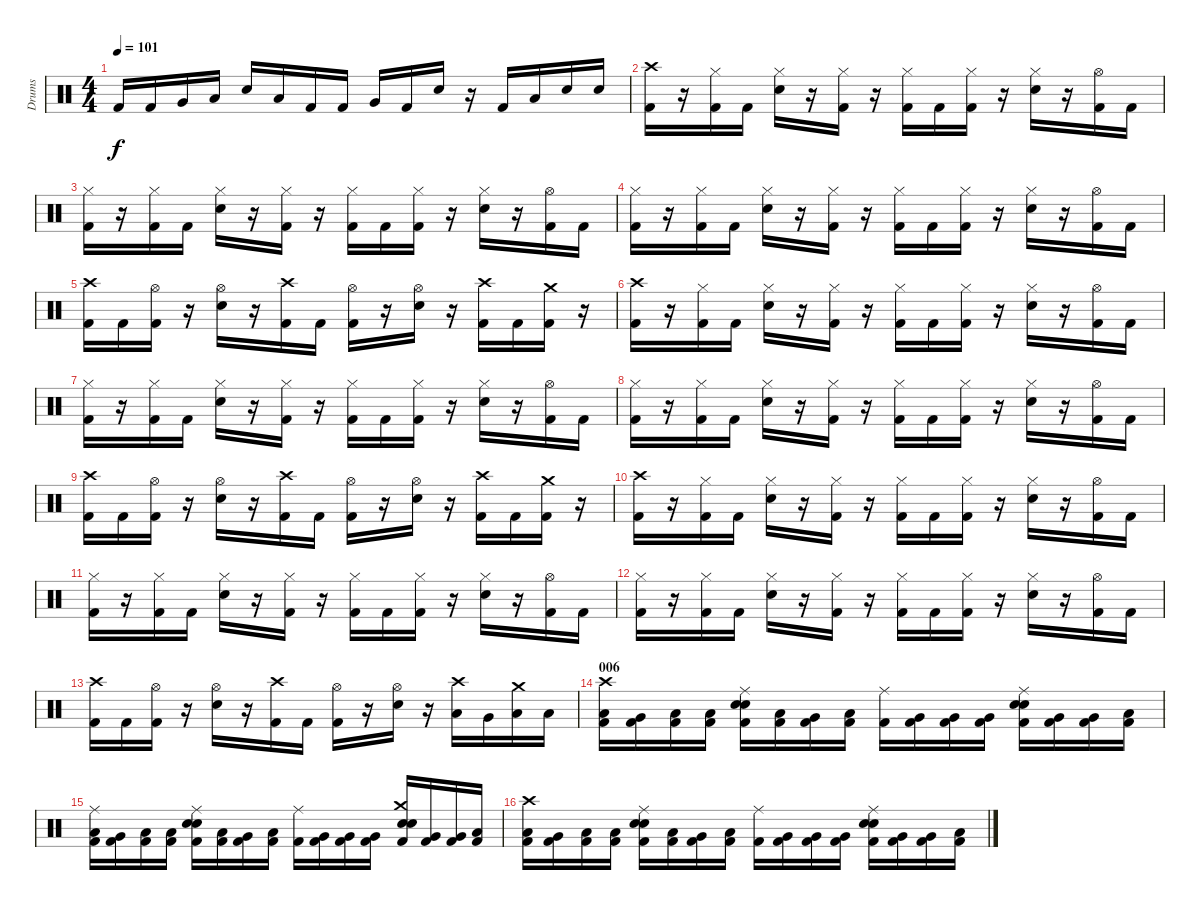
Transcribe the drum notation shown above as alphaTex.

\track ("Drums" "Drums") {instrument percussion}
\staff {score}
\articulation defaults
\ts (4 4)
\tempo 101
\clef neutral
\ks c "Kick (hit) 2".16{dy f} "Kick (hit) 2".16 "Very Low Tom (hit)".16 "Low Floor Tom (hit)".16 "Electric Snare (hit)".16 "Low Floor Tom (hit)".16 "Kick (hit) 2".16 "Kick (hit) 2".16 "Very Low Tom (hit)".16 "Kick (hit) 2".16 "Electric Snare (hit)".16
r.16 "Kick (hit) 2".16 "Low Floor Tom (hit)".16 "Electric Snare (hit)".16 "Electric Snare (hit)".16 |
("Kick (hit) 2" "Crash high (hit)").16 r.16 ("Kick (hit) 2" "Hi-Hat (closed)").16 "Kick (hit) 2".16 ("Electric Snare (hit)" "Hi-Hat (closed)").16 r.16 ("Kick (hit) 2" "Hi-Hat (closed)").16 r.16 ("Kick (hit) 2" "Hi-Hat (closed)").16 "Kick (hit) 2".16 ("Kick (hit) 2" "Hi-Hat (closed)").16 r.16 ("Electric Snare (hit)" "Hi-Hat (closed)").16 r.16 ("Kick (hit) 2" "Hi-Hat (open)").16 "Kick (hit) 2".16 |
("Kick (hit) 2" "Hi-Hat (closed)").16 r.16 ("Kick (hit) 2" "Hi-Hat (closed)").16 "Kick (hit) 2".16 ("Electric Snare (hit)" "Hi-Hat (closed)").16 r.16 ("Kick (hit) 2" "Hi-Hat (closed)").16 r.16 ("Kick (hit) 2" "Hi-Hat (closed)").16 "Kick (hit) 2".16 ("Kick (hit) 2" "Hi-Hat (closed)").16 r.16 ("Electric Snare (hit)" "Hi-Hat (closed)").16 r.16 ("Kick (hit) 2" "Hi-Hat (open)").16 "Kick (hit) 2".16 |
("Kick (hit) 2" "Hi-Hat (closed)").16 r.16 ("Kick (hit) 2" "Hi-Hat (closed)").16 "Kick (hit) 2".16 ("Electric Snare (hit)" "Hi-Hat (closed)").16 r.16 ("Kick (hit) 2" "Hi-Hat (closed)").16 r.16 ("Kick (hit) 2" "Hi-Hat (closed)").16 "Kick (hit) 2".16 ("Kick (hit) 2" "Hi-Hat (closed)").16 r.16 ("Electric Snare (hit)" "Hi-Hat (closed)").16 r.16 ("Kick (hit) 2" "Hi-Hat (open)").16 "Kick (hit) 2".16 |
("Kick (hit) 2" "Crash high (hit)").16 "Kick (hit) 2".16 ("Kick (hit) 2" "Hi-Hat (open)").16 r.16 ("Electric Snare (hit)" "Hi-Hat (open)").16 r.16 ("Kick (hit) 2" "Crash high (hit)").16 "Kick (hit) 2".16 ("Kick (hit) 2" "Hi-Hat (open)").16 r.16 ("Electric Snare (hit)" "Hi-Hat (open)").16 r.16 ("Kick (hit) 2" "Crash high (hit)").16 "Kick (hit) 2".16 ("Kick (hit) 2" "Crash medium (hit)").16 r.16 |
("Kick (hit) 2" "Crash high (hit)").16 r.16 ("Kick (hit) 2" "Hi-Hat (closed)").16 "Kick (hit) 2".16 ("Electric Snare (hit)" "Hi-Hat (closed)").16 r.16 ("Kick (hit) 2" "Hi-Hat (closed)").16 r.16 ("Kick (hit) 2" "Hi-Hat (closed)").16 "Kick (hit) 2".16 ("Kick (hit) 2" "Hi-Hat (closed)").16 r.16 ("Electric Snare (hit)" "Hi-Hat (closed)").16 r.16 ("Kick (hit) 2" "Hi-Hat (open)").16 "Kick (hit) 2".16 |
("Kick (hit) 2" "Hi-Hat (closed)").16 r.16 ("Kick (hit) 2" "Hi-Hat (closed)").16 "Kick (hit) 2".16 ("Electric Snare (hit)" "Hi-Hat (closed)").16 r.16 ("Kick (hit) 2" "Hi-Hat (closed)").16 r.16 ("Kick (hit) 2" "Hi-Hat (closed)").16 "Kick (hit) 2".16 ("Kick (hit) 2" "Hi-Hat (closed)").16 r.16 ("Electric Snare (hit)" "Hi-Hat (closed)").16 r.16 ("Kick (hit) 2" "Hi-Hat (open)").16 "Kick (hit) 2".16 |
("Kick (hit) 2" "Hi-Hat (closed)").16 r.16 ("Kick (hit) 2" "Hi-Hat (closed)").16 "Kick (hit) 2".16 ("Electric Snare (hit)" "Hi-Hat (closed)").16 r.16 ("Kick (hit) 2" "Hi-Hat (closed)").16 r.16 ("Kick (hit) 2" "Hi-Hat (closed)").16 "Kick (hit) 2".16 ("Kick (hit) 2" "Hi-Hat (closed)").16 r.16 ("Electric Snare (hit)" "Hi-Hat (closed)").16 r.16 ("Kick (hit) 2" "Hi-Hat (open)").16 "Kick (hit) 2".16 |
("Kick (hit) 2" "Crash high (hit)").16 "Kick (hit) 2".16 ("Kick (hit) 2" "Hi-Hat (open)").16 r.16 ("Electric Snare (hit)" "Hi-Hat (open)").16 r.16 ("Kick (hit) 2" "Crash high (hit)").16 "Kick (hit) 2".16 ("Kick (hit) 2" "Hi-Hat (open)").16 r.16 ("Electric Snare (hit)" "Hi-Hat (open)").16 r.16 ("Kick (hit) 2" "Crash high (hit)").16 "Kick (hit) 2".16 ("Kick (hit) 2" "Crash medium (hit)").16 r.16 |
("Kick (hit) 2" "Crash high (hit)").16 r.16 ("Kick (hit) 2" "Hi-Hat (closed)").16 "Kick (hit) 2".16 ("Electric Snare (hit)" "Hi-Hat (closed)").16 r.16 ("Kick (hit) 2" "Hi-Hat (closed)").16 r.16 ("Kick (hit) 2" "Hi-Hat (closed)").16 "Kick (hit) 2".16 ("Kick (hit) 2" "Hi-Hat (closed)").16 r.16 ("Electric Snare (hit)" "Hi-Hat (closed)").16 r.16 ("Kick (hit) 2" "Hi-Hat (open)").16 "Kick (hit) 2".16 |
("Kick (hit) 2" "Hi-Hat (closed)").16 r.16 ("Kick (hit) 2" "Hi-Hat (closed)").16 "Kick (hit) 2".16 ("Electric Snare (hit)" "Hi-Hat (closed)").16 r.16 ("Kick (hit) 2" "Hi-Hat (closed)").16 r.16 ("Kick (hit) 2" "Hi-Hat (closed)").16 "Kick (hit) 2".16 ("Kick (hit) 2" "Hi-Hat (closed)").16 r.16 ("Electric Snare (hit)" "Hi-Hat (closed)").16 r.16 ("Kick (hit) 2" "Hi-Hat (open)").16 "Kick (hit) 2".16 |
("Kick (hit) 2" "Hi-Hat (closed)").16 r.16 ("Kick (hit) 2" "Hi-Hat (closed)").16 "Kick (hit) 2".16 ("Electric Snare (hit)" "Hi-Hat (closed)").16 r.16 ("Kick (hit) 2" "Hi-Hat (closed)").16 r.16 ("Kick (hit) 2" "Hi-Hat (closed)").16 "Kick (hit) 2".16 ("Kick (hit) 2" "Hi-Hat (closed)").16 r.16 ("Electric Snare (hit)" "Hi-Hat (closed)").16 r.16 ("Kick (hit) 2" "Hi-Hat (open)").16 "Kick (hit) 2".16 |
("Kick (hit) 2" "Crash high (hit)").16 "Kick (hit) 2".16 ("Kick (hit) 2" "Hi-Hat (open)").16 r.16 ("Electric Snare (hit)" "Hi-Hat (open)").16 r.16 ("Kick (hit) 2" "Crash high (hit)").16 "Kick (hit) 2".16 ("Kick (hit) 2" "Hi-Hat (open)").16 r.16 ("Electric Snare (hit)" "Hi-Hat (open)").16 r.16 ("Low Tom (hit)" "Crash high (hit)").16 "Very Low Tom (hit)".16 ("Low Floor Tom (hit)" "Crash medium (hit)").16 "Low Floor Tom (hit)".16 |
\section ("" "006")
("Kick (hit) 2" "Low Floor Tom (hit)" "Crash high (hit)").16 ("Kick (hit) 2" "Very Low Tom (hit)").16 ("Kick (hit) 2" "Low Tom (hit)").16 ("Kick (hit) 2" "Low Floor Tom (hit)").16 ("Kick (hit) 2" "Electric Snare (hit)" "Snare (hit) 2" "Ride (middle)").16 ("Kick (hit) 2" "Low Tom (hit)").16 ("Kick (hit) 2" "Very Low Tom (hit)").16 ("Kick (hit) 2" "Low Floor Tom (hit)").16 ("Kick (hit) 2" "Ride (middle)").16 ("Kick (hit) 2" "Very Low Tom (hit)").16 ("Kick (hit) 2" "Very Low Tom (hit)").16 ("Kick (hit) 2" "Very Low Tom (hit)").16 ("Kick (hit) 2" "Electric Snare (hit)" "Snare (hit) 2" "Ride (middle)").16 ("Kick (hit) 2" "Very Low Tom (hit)").16 ("Kick (hit) 2" "Very Low Tom (hit)").16 ("Kick (hit) 2" "Low Floor Tom (hit)").16 |
("Kick (hit) 2" "Low Floor Tom (hit)" "Ride (middle)").16 ("Kick (hit) 2" "Very Low Tom (hit)").16 ("Kick (hit) 2" "Low Tom (hit)").16 ("Kick (hit) 2" "Low Floor Tom (hit)").16 ("Kick (hit) 2" "Electric Snare (hit)" "Snare (hit) 2" "Ride (middle)").16 ("Kick (hit) 2" "Low Tom (hit)").16 ("Kick (hit) 2" "Very Low Tom (hit)").16 ("Kick (hit) 2" "Low Floor Tom (hit)").16 ("Kick (hit) 2" "Ride (middle)").16 ("Kick (hit) 2" "Very Low Tom (hit)").16 ("Kick (hit) 2" "Very Low Tom (hit)").16 ("Kick (hit) 2" "Very Low Tom (hit)").16 ("Kick (hit) 2" "Electric Snare (hit)" "Snare (hit) 2" "Crash medium (hit)").16 ("Kick (hit) 2" "Very Low Tom (hit)").16 ("Kick (hit) 2" "Very Low Tom (hit)").16 ("Kick (hit) 2" "Low Floor Tom (hit)").16 |
("Kick (hit) 2" "Low Floor Tom (hit)" "Crash high (hit)").16 ("Kick (hit) 2" "Very Low Tom (hit)").16 ("Kick (hit) 2" "Low Tom (hit)").16 ("Kick (hit) 2" "Low Floor Tom (hit)").16 ("Kick (hit) 2" "Electric Snare (hit)" "Snare (hit) 2" "Ride (middle)").16 ("Kick (hit) 2" "Low Tom (hit)").16 ("Kick (hit) 2" "Very Low Tom (hit)").16 ("Kick (hit) 2" "Low Floor Tom (hit)").16 ("Kick (hit) 2" "Ride (middle)").16 ("Kick (hit) 2" "Very Low Tom (hit)").16 ("Kick (hit) 2" "Very Low Tom (hit)").16 ("Kick (hit) 2" "Very Low Tom (hit)").16 ("Kick (hit) 2" "Electric Snare (hit)" "Snare (hit) 2" "Ride (middle)").16 ("Kick (hit) 2" "Very Low Tom (hit)").16 ("Kick (hit) 2" "Very Low Tom (hit)").16 ("Kick (hit) 2" "Low Floor Tom (hit)").16
